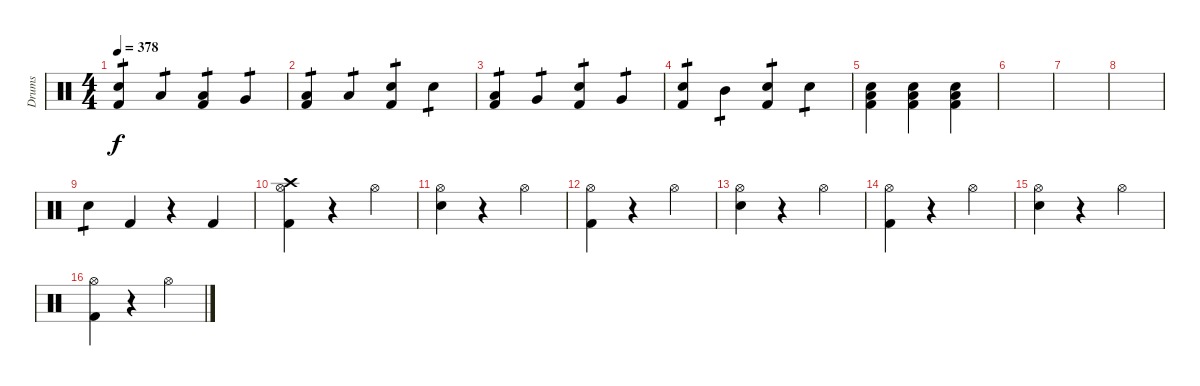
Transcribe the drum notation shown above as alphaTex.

\track ("Drums" "Drums") {instrument percussion}
\staff {score}
\articulation defaults
\ts (4 4)
\tempo 378
\clef neutral
\ks c
("Electric Snare (hit)" "Kick (hit) 2").4{tp 1 dy f} "Low Tom (hit)".4{tp 1} ("Low Tom (hit)" "Kick (hit) 2").4{tp 1} "Very Low Tom (hit)".4{tp 1} |
("Low Floor Tom (hit)" "Kick (hit) 2").4{tp 1} "Low Floor Tom (hit)".4{tp 1} ("Electric Snare (hit)" "Kick (hit) 2").4{tp 1} "Electric Snare (hit)".4{tp 1} |
("Low Floor Tom (hit)" "Kick (hit) 2").4{tp 1} "Very Low Tom (hit)".4{tp 1} ("Electric Snare (hit)" "Kick (hit) 2").4{tp 1} "Very Low Tom (hit)".4{tp 1} |
("Electric Snare (hit)" "Kick (hit) 2").4{tp 1} "Mid Tom (hit)".4{tp 1} ("Electric Snare (hit)" "Kick (hit) 2").4{tp 1} "Electric Snare (hit)".4{tp 1} |
("Low Floor Tom (hit)" "Kick (hit) 2" "Electric Snare (hit)").4 ("Low Floor Tom (hit)" "Kick (hit) 2" "Electric Snare (hit)").4 ("Low Floor Tom (hit)" "Kick (hit) 2" "Electric Snare (hit)").4 |
|
|
|
"Electric Snare (hit)".4{tp 1} "Kick (hit) 2".4 r.4 "Kick (hit) 2".4 |
("Crash high (hit)" "Hi-Hat (open)" "Kick (hit) 2").4 r.4 "Hi-Hat (open)".4 |
("Hi-Hat (open)" "Electric Snare (hit)").4 r.4 "Hi-Hat (open)".4 |
("Hi-Hat (open)" "Kick (hit) 2").4 r.4 "Hi-Hat (open)".4 |
("Hi-Hat (open)" "Electric Snare (hit)").4 r.4 "Hi-Hat (open)".4 |
("Hi-Hat (open)" "Kick (hit) 2").4 r.4 "Hi-Hat (open)".4 |
("Hi-Hat (open)" "Electric Snare (hit)").4 r.4 "Hi-Hat (open)".4 |
("Hi-Hat (open)" "Kick (hit) 2").4 r.4 "Hi-Hat (open)".4
